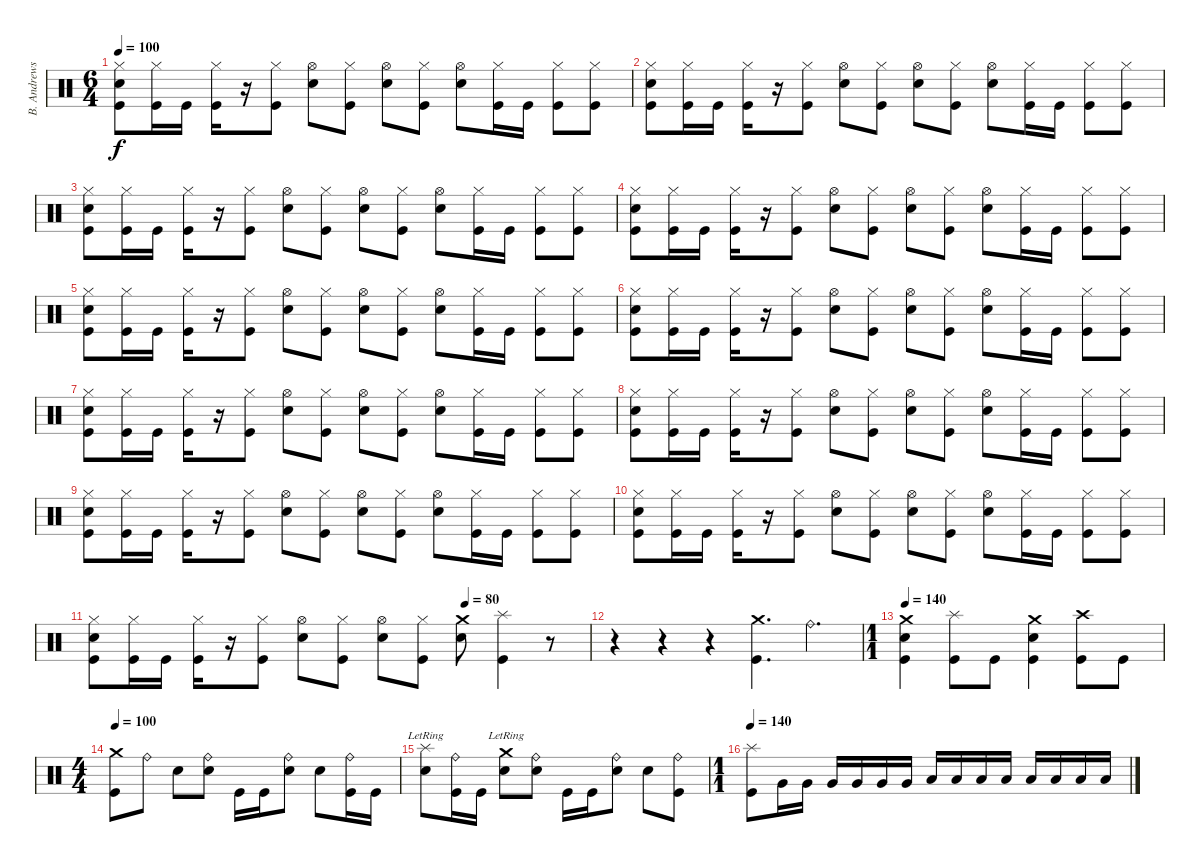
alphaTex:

\track ("B. Andrews" "B. Andrews") {instrument percussion}
\staff {score}
\articulation defaults
\ts (6 4)
\tempo 100
\clef neutral
\ks c
("Hi-Hat (closed)" "Electric Snare (hit)" "Kick (hit)").8{dy f} ("Hi-Hat (closed)" "Kick (hit)").16 "Kick (hit)".16 ("Hi-Hat (closed)" "Kick (hit)").16 r.16 ("Hi-Hat (closed)" "Kick (hit)").8 ("Hi-Hat (open)" "Electric Snare (hit)").8 ("Hi-Hat (closed)" "Kick (hit)").8 ("Hi-Hat (open)" "Electric Snare (hit)").8 ("Hi-Hat (closed)" "Kick (hit)").8 ("Hi-Hat (open)" "Electric Snare (hit)").8 ("Hi-Hat (closed)" "Kick (hit)").16 "Kick (hit)".16 ("Hi-Hat (closed)" "Kick (hit)").8 ("Hi-Hat (closed)" "Kick (hit)").8 |
("Hi-Hat (closed)" "Electric Snare (hit)" "Kick (hit)").8 ("Hi-Hat (closed)" "Kick (hit)").16 "Kick (hit)".16 ("Hi-Hat (closed)" "Kick (hit)").16 r.16 ("Hi-Hat (closed)" "Kick (hit)").8 ("Hi-Hat (open)" "Electric Snare (hit)").8 ("Hi-Hat (closed)" "Kick (hit)").8 ("Hi-Hat (open)" "Electric Snare (hit)").8 ("Hi-Hat (closed)" "Kick (hit)").8 ("Hi-Hat (open)" "Electric Snare (hit)").8 ("Hi-Hat (closed)" "Kick (hit)").16 "Kick (hit)".16 ("Hi-Hat (closed)" "Kick (hit)").8 ("Hi-Hat (closed)" "Kick (hit)").8 |
("Hi-Hat (closed)" "Electric Snare (hit)" "Kick (hit)").8 ("Hi-Hat (closed)" "Kick (hit)").16 "Kick (hit)".16 ("Hi-Hat (closed)" "Kick (hit)").16 r.16 ("Hi-Hat (closed)" "Kick (hit)").8 ("Hi-Hat (open)" "Electric Snare (hit)").8 ("Hi-Hat (closed)" "Kick (hit)").8 ("Hi-Hat (open)" "Electric Snare (hit)").8 ("Hi-Hat (closed)" "Kick (hit)").8 ("Hi-Hat (open)" "Electric Snare (hit)").8 ("Hi-Hat (closed)" "Kick (hit)").16 "Kick (hit)".16 ("Hi-Hat (closed)" "Kick (hit)").8 ("Hi-Hat (closed)" "Kick (hit)").8 |
("Hi-Hat (closed)" "Electric Snare (hit)" "Kick (hit)").8 ("Hi-Hat (closed)" "Kick (hit)").16 "Kick (hit)".16 ("Hi-Hat (closed)" "Kick (hit)").16 r.16 ("Hi-Hat (closed)" "Kick (hit)").8 ("Hi-Hat (open)" "Electric Snare (hit)").8 ("Hi-Hat (closed)" "Kick (hit)").8 ("Hi-Hat (open)" "Electric Snare (hit)").8 ("Hi-Hat (closed)" "Kick (hit)").8 ("Hi-Hat (open)" "Electric Snare (hit)").8 ("Hi-Hat (closed)" "Kick (hit)").16 "Kick (hit)".16 ("Hi-Hat (closed)" "Kick (hit)").8 ("Hi-Hat (closed)" "Kick (hit)").8 |
("Hi-Hat (closed)" "Electric Snare (hit)" "Kick (hit)").8 ("Hi-Hat (closed)" "Kick (hit)").16 "Kick (hit)".16 ("Hi-Hat (closed)" "Kick (hit)").16 r.16 ("Hi-Hat (closed)" "Kick (hit)").8 ("Hi-Hat (open)" "Electric Snare (hit)").8 ("Hi-Hat (closed)" "Kick (hit)").8 ("Hi-Hat (open)" "Electric Snare (hit)").8 ("Hi-Hat (closed)" "Kick (hit)").8 ("Hi-Hat (open)" "Electric Snare (hit)").8 ("Hi-Hat (closed)" "Kick (hit)").16 "Kick (hit)".16 ("Hi-Hat (closed)" "Kick (hit)").8 ("Hi-Hat (closed)" "Kick (hit)").8 |
("Hi-Hat (closed)" "Electric Snare (hit)" "Kick (hit)").8 ("Hi-Hat (closed)" "Kick (hit)").16 "Kick (hit)".16 ("Hi-Hat (closed)" "Kick (hit)").16 r.16 ("Hi-Hat (closed)" "Kick (hit)").8 ("Hi-Hat (open)" "Electric Snare (hit)").8 ("Hi-Hat (closed)" "Kick (hit)").8 ("Hi-Hat (open)" "Electric Snare (hit)").8 ("Hi-Hat (closed)" "Kick (hit)").8 ("Hi-Hat (open)" "Electric Snare (hit)").8 ("Hi-Hat (closed)" "Kick (hit)").16 "Kick (hit)".16 ("Hi-Hat (closed)" "Kick (hit)").8 ("Hi-Hat (closed)" "Kick (hit)").8 |
("Hi-Hat (closed)" "Electric Snare (hit)" "Kick (hit)").8 ("Hi-Hat (closed)" "Kick (hit)").16 "Kick (hit)".16 ("Hi-Hat (closed)" "Kick (hit)").16 r.16 ("Hi-Hat (closed)" "Kick (hit)").8 ("Hi-Hat (open)" "Electric Snare (hit)").8 ("Hi-Hat (closed)" "Kick (hit)").8 ("Hi-Hat (open)" "Electric Snare (hit)").8 ("Hi-Hat (closed)" "Kick (hit)").8 ("Hi-Hat (open)" "Electric Snare (hit)").8 ("Hi-Hat (closed)" "Kick (hit)").16 "Kick (hit)".16 ("Hi-Hat (closed)" "Kick (hit)").8 ("Hi-Hat (closed)" "Kick (hit)").8 |
("Hi-Hat (closed)" "Electric Snare (hit)" "Kick (hit)").8 ("Hi-Hat (closed)" "Kick (hit)").16 "Kick (hit)".16 ("Hi-Hat (closed)" "Kick (hit)").16 r.16 ("Hi-Hat (closed)" "Kick (hit)").8 ("Hi-Hat (open)" "Electric Snare (hit)").8 ("Hi-Hat (closed)" "Kick (hit)").8 ("Hi-Hat (open)" "Electric Snare (hit)").8 ("Hi-Hat (closed)" "Kick (hit)").8 ("Hi-Hat (open)" "Electric Snare (hit)").8 ("Hi-Hat (closed)" "Kick (hit)").16 "Kick (hit)".16 ("Hi-Hat (closed)" "Kick (hit)").8 ("Hi-Hat (closed)" "Kick (hit)").8 |
("Hi-Hat (closed)" "Electric Snare (hit)" "Kick (hit)").8 ("Hi-Hat (closed)" "Kick (hit)").16 "Kick (hit)".16 ("Hi-Hat (closed)" "Kick (hit)").16 r.16 ("Hi-Hat (closed)" "Kick (hit)").8 ("Hi-Hat (open)" "Electric Snare (hit)").8 ("Hi-Hat (closed)" "Kick (hit)").8 ("Hi-Hat (open)" "Electric Snare (hit)").8 ("Hi-Hat (closed)" "Kick (hit)").8 ("Hi-Hat (open)" "Electric Snare (hit)").8 ("Hi-Hat (closed)" "Kick (hit)").16 "Kick (hit)".16 ("Hi-Hat (closed)" "Kick (hit)").8 ("Hi-Hat (closed)" "Kick (hit)").8 |
("Hi-Hat (closed)" "Electric Snare (hit)" "Kick (hit)").8 ("Hi-Hat (closed)" "Kick (hit)").16 "Kick (hit)".16 ("Hi-Hat (closed)" "Kick (hit)").16 r.16 ("Hi-Hat (closed)" "Kick (hit)").8 ("Hi-Hat (open)" "Electric Snare (hit)").8 ("Hi-Hat (closed)" "Kick (hit)").8 ("Hi-Hat (open)" "Electric Snare (hit)").8 ("Hi-Hat (closed)" "Kick (hit)").8 ("Hi-Hat (open)" "Electric Snare (hit)").8 ("Hi-Hat (closed)" "Kick (hit)").16 "Kick (hit)".16 ("Hi-Hat (closed)" "Kick (hit)").8 ("Hi-Hat (closed)" "Kick (hit)").8 |
\tempo (80 0.75)
("Hi-Hat (closed)" "Electric Snare (hit)" "Kick (hit)").8 ("Hi-Hat (closed)" "Kick (hit)").16 "Kick (hit)".16 ("Hi-Hat (closed)" "Kick (hit)").16 r.16 ("Hi-Hat (closed)" "Kick (hit)").8 ("Hi-Hat (open)" "Electric Snare (hit)").8 ("Hi-Hat (closed)" "Kick (hit)").8 ("Hi-Hat (open)" "Electric Snare (hit)").8 ("Hi-Hat (closed)" "Kick (hit)").8 ("Crash medium (hit)" "Electric Snare (hit)").8 ("Splash (hit)" "Kick (hit)").4 r.8 |
r.4 r.4 r.4 ("Crash medium (hit)" "Kick (hit)").4{d} "Ride (bell)".4{d} |
\ts (1 1)
\tempo 140
("Crash medium (hit)" "Electric Snare (hit)" "Kick (hit)").4 ("Splash (hit)" "Kick (hit)").8 "Kick (hit)".8 ("Crash medium (hit)" "Electric Snare (hit)" "Kick (hit)").4 ("Crash high (hit)" "Kick (hit)").8 "Kick (hit)".8 |
\ts (4 4)
\tempo 80
\tempo 100
("Crash medium (hit)" "Kick (hit)").8 "Ride (bell)".8 "Electric Snare (hit)".8 ("Ride (bell)" "Electric Snare (hit)").8 "Kick (hit)".16 "Kick (hit)".16 ("Ride (bell)" "Electric Snare (hit)").8 "Electric Snare (hit)".8 ("Ride (bell)" "Kick (hit)").16 "Kick (hit)".16 |
("Splash (hit)"{lr} "Electric Snare (hit)").8 ("Ride (bell)" "Kick (hit)").16 "Kick (hit)".16 ("Crash medium (hit)"{lr} "Electric Snare (hit)").8 ("Ride (bell)" "Electric Snare (hit)").8 "Kick (hit)".16 "Kick (hit)".16 ("Ride (bell)" "Electric Snare (hit)").8 "Electric Snare (hit)".8 ("Ride (bell)" "Kick (hit)").8 |
\ts (1 1)
\tempo 140
("Splash (hit)" "Kick (hit)").8 "Very Low Tom (hit)".16 "Very Low Tom (hit)".16 "Very Low Tom (hit)".16 "Very Low Tom (hit)".16 "Very Low Tom (hit)".16 "Very Low Tom (hit)".16 "Low Floor Tom (hit)".16 "Low Floor Tom (hit)".16 "Low Floor Tom (hit)".16 "Low Floor Tom (hit)".16 "Low Floor Tom (hit)".16 "Low Floor Tom (hit)".16 "Low Floor Tom (hit)".16 "Low Floor Tom (hit)".16
